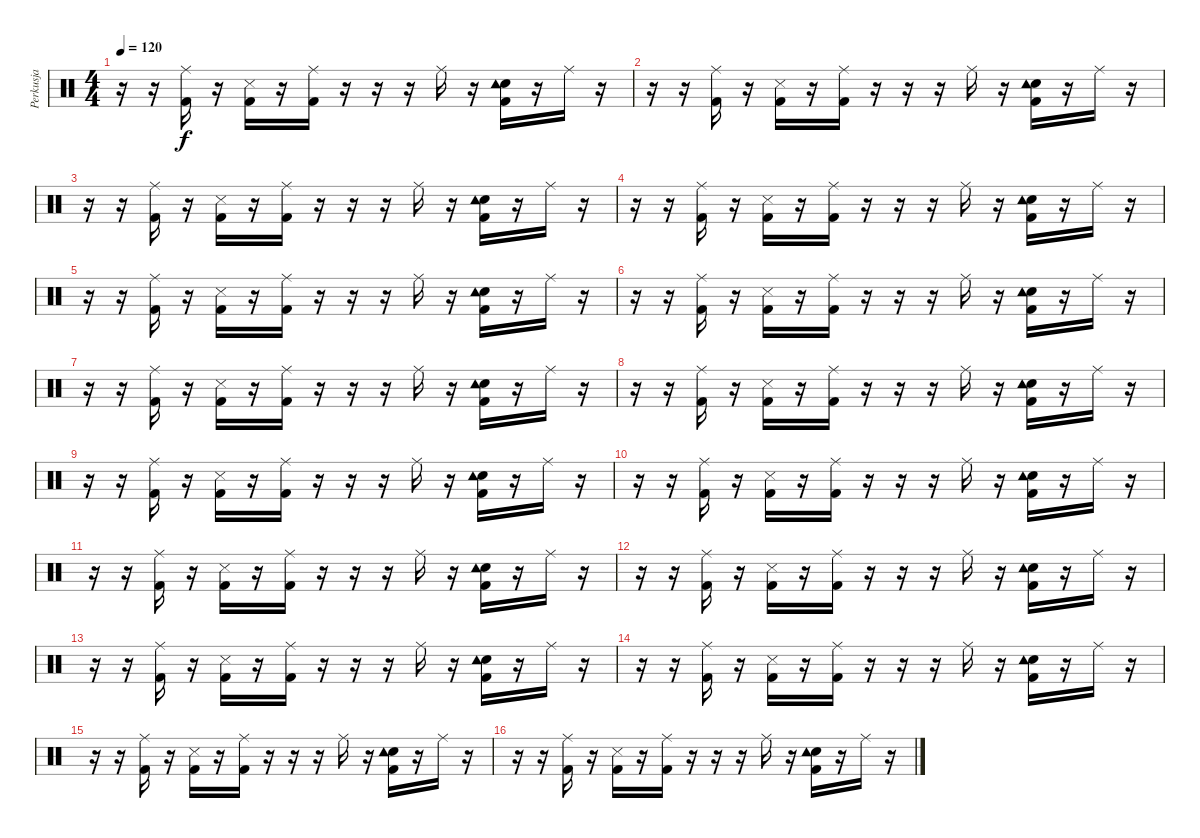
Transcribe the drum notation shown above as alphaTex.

\track ("Perkusja" "Perkusja") {instrument percussion}
\staff {score}
\articulation defaults
\ts (4 4)
\tempo 120
\clef neutral
\ks c
r.16{dy f} r.16{volume 8} ("Kick (hit) 2" "Ride (middle)").16 r.16 ("Snare (side stick) 3" "Kick (hit) 2").16 r.16 ("Kick (hit) 2" "Ride (middle)").16 r.16 r.16 r.16 "Ride (middle)".16 r.16 ("Electric Snare (hit)" "Tambourine (hit)" "Kick (hit) 2").16 r.16 "Ride (middle)".16 r.16 |
r.16 r.16 ("Kick (hit) 2" "Ride (middle)").16 r.16 ("Snare (side stick) 3" "Kick (hit) 2").16 r.16 ("Kick (hit) 2" "Ride (middle)").16 r.16 r.16 r.16 "Ride (middle)".16 r.16 ("Electric Snare (hit)" "Tambourine (hit)" "Kick (hit) 2").16 r.16 "Ride (middle)".16 r.16 |
r.16 r.16 ("Kick (hit) 2" "Ride (middle)").16 r.16 ("Snare (side stick) 3" "Kick (hit) 2").16 r.16 ("Kick (hit) 2" "Ride (middle)").16 r.16 r.16 r.16 "Ride (middle)".16 r.16 ("Electric Snare (hit)" "Tambourine (hit)" "Kick (hit) 2").16 r.16 "Ride (middle)".16 r.16 |
r.16 r.16 ("Kick (hit) 2" "Ride (middle)").16 r.16 ("Snare (side stick) 3" "Kick (hit) 2").16 r.16 ("Kick (hit) 2" "Ride (middle)").16 r.16 r.16 r.16 "Ride (middle)".16 r.16 ("Electric Snare (hit)" "Tambourine (hit)" "Kick (hit) 2").16 r.16 "Ride (middle)".16 r.16 |
r.16 r.16 ("Kick (hit) 2" "Ride (middle)").16 r.16 ("Snare (side stick) 3" "Kick (hit) 2").16 r.16 ("Kick (hit) 2" "Ride (middle)").16 r.16 r.16 r.16 "Ride (middle)".16 r.16 ("Electric Snare (hit)" "Tambourine (hit)" "Kick (hit) 2").16 r.16 "Ride (middle)".16 r.16 |
r.16 r.16 ("Kick (hit) 2" "Ride (middle)").16 r.16 ("Snare (side stick) 3" "Kick (hit) 2").16 r.16 ("Kick (hit) 2" "Ride (middle)").16 r.16 r.16 r.16 "Ride (middle)".16 r.16 ("Electric Snare (hit)" "Tambourine (hit)" "Kick (hit) 2").16 r.16 "Ride (middle)".16 r.16 |
r.16 r.16 ("Kick (hit) 2" "Ride (middle)").16 r.16 ("Snare (side stick) 3" "Kick (hit) 2").16 r.16 ("Kick (hit) 2" "Ride (middle)").16 r.16 r.16 r.16 "Ride (middle)".16 r.16 ("Electric Snare (hit)" "Tambourine (hit)" "Kick (hit) 2").16 r.16 "Ride (middle)".16 r.16 |
r.16 r.16 ("Kick (hit) 2" "Ride (middle)").16 r.16 ("Snare (side stick) 3" "Kick (hit) 2").16 r.16 ("Kick (hit) 2" "Ride (middle)").16 r.16 r.16 r.16 "Ride (middle)".16 r.16 ("Electric Snare (hit)" "Tambourine (hit)" "Kick (hit) 2").16 r.16 "Ride (middle)".16 r.16 |
r.16 r.16 ("Kick (hit) 2" "Ride (middle)").16 r.16 ("Snare (side stick) 3" "Kick (hit) 2").16 r.16 ("Kick (hit) 2" "Ride (middle)").16 r.16 r.16 r.16 "Ride (middle)".16 r.16 ("Electric Snare (hit)" "Tambourine (hit)" "Kick (hit) 2").16 r.16 "Ride (middle)".16 r.16 |
r.16 r.16 ("Kick (hit) 2" "Ride (middle)").16 r.16 ("Snare (side stick) 3" "Kick (hit) 2").16 r.16 ("Kick (hit) 2" "Ride (middle)").16 r.16 r.16 r.16 "Ride (middle)".16 r.16 ("Electric Snare (hit)" "Tambourine (hit)" "Kick (hit) 2").16 r.16 "Ride (middle)".16 r.16 |
r.16 r.16 ("Kick (hit) 2" "Ride (middle)").16 r.16 ("Snare (side stick) 3" "Kick (hit) 2").16 r.16 ("Kick (hit) 2" "Ride (middle)").16 r.16 r.16 r.16 "Ride (middle)".16 r.16 ("Electric Snare (hit)" "Tambourine (hit)" "Kick (hit) 2").16 r.16 "Ride (middle)".16 r.16 |
r.16 r.16 ("Kick (hit) 2" "Ride (middle)").16 r.16 ("Snare (side stick) 3" "Kick (hit) 2").16 r.16 ("Kick (hit) 2" "Ride (middle)").16 r.16 r.16 r.16 "Ride (middle)".16 r.16 ("Electric Snare (hit)" "Tambourine (hit)" "Kick (hit) 2").16 r.16 "Ride (middle)".16 r.16 |
r.16 r.16 ("Kick (hit) 2" "Ride (middle)").16 r.16 ("Snare (side stick) 3" "Kick (hit) 2").16 r.16 ("Kick (hit) 2" "Ride (middle)").16 r.16 r.16 r.16 "Ride (middle)".16 r.16 ("Electric Snare (hit)" "Tambourine (hit)" "Kick (hit) 2").16 r.16 "Ride (middle)".16 r.16 |
r.16 r.16 ("Kick (hit) 2" "Ride (middle)").16 r.16 ("Snare (side stick) 3" "Kick (hit) 2").16 r.16 ("Kick (hit) 2" "Ride (middle)").16 r.16 r.16 r.16 "Ride (middle)".16 r.16 ("Electric Snare (hit)" "Tambourine (hit)" "Kick (hit) 2").16 r.16 "Ride (middle)".16 r.16 |
r.16 r.16 ("Kick (hit) 2" "Ride (middle)").16 r.16 ("Snare (side stick) 3" "Kick (hit) 2").16 r.16 ("Kick (hit) 2" "Ride (middle)").16 r.16 r.16 r.16 "Ride (middle)".16 r.16 ("Electric Snare (hit)" "Tambourine (hit)" "Kick (hit) 2").16 r.16 "Ride (middle)".16 r.16 |
r.16 r.16 ("Kick (hit) 2" "Ride (middle)").16 r.16 ("Snare (side stick) 3" "Kick (hit) 2").16 r.16 ("Kick (hit) 2" "Ride (middle)").16 r.16 r.16 r.16 "Ride (middle)".16 r.16 ("Electric Snare (hit)" "Tambourine (hit)" "Kick (hit) 2").16 r.16 "Ride (middle)".16 r.16
